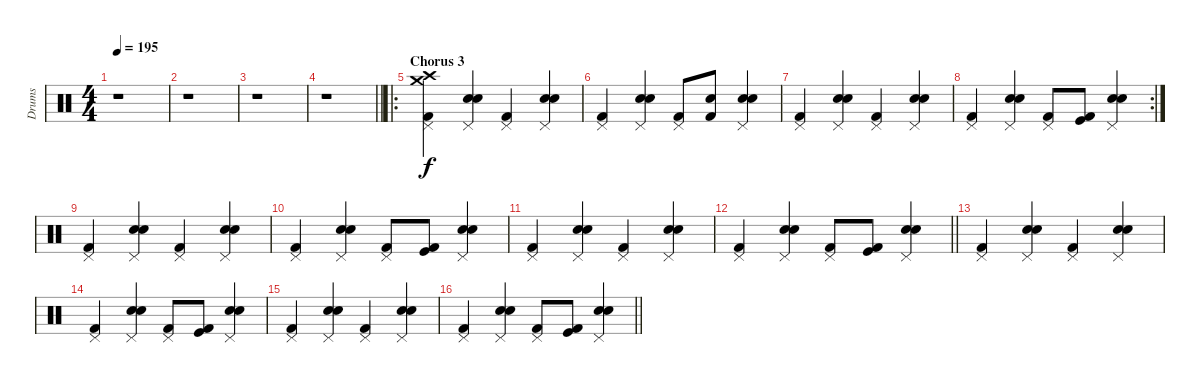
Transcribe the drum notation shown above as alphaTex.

\track ("Drums" "Drums") {instrument percussion}
\staff {score}
\articulation defaults
\ts (4 4)
\tempo 195
\clef neutral
\ks c
r.1{dy f} |
r.1 |
r.1 |
\barLineRight lightlight
r.1 |
\ro
\section ("" "Chorus 3")
("Kick (hit) 2" "Pedal Hi-Hat (hit)" "Crash medium (hit)" "Crash high (hit)").4 ("Snare (hit) 2" "Electric Snare (hit)" "Pedal Hi-Hat (hit)").4 ("Kick (hit) 2" "Pedal Hi-Hat (hit)").4 ("Snare (hit) 2" "Electric Snare (hit)" "Pedal Hi-Hat (hit)").4 |
("Kick (hit) 2" "Pedal Hi-Hat (hit)").4 ("Snare (hit) 2" "Electric Snare (hit)" "Pedal Hi-Hat (hit)").4 ("Kick (hit) 2" "Pedal Hi-Hat (hit)").8 ("Kick (hit) 2" "Electric Snare (hit)").8 ("Snare (hit) 2" "Electric Snare (hit)" "Pedal Hi-Hat (hit)").4 |
("Kick (hit) 2" "Pedal Hi-Hat (hit)").4 ("Snare (hit) 2" "Electric Snare (hit)" "Pedal Hi-Hat (hit)").4 ("Kick (hit) 2" "Pedal Hi-Hat (hit)").4 ("Snare (hit) 2" "Electric Snare (hit)" "Pedal Hi-Hat (hit)").4 |
\rc 2
("Kick (hit) 2" "Pedal Hi-Hat (hit)").4 ("Snare (hit) 2" "Electric Snare (hit)" "Pedal Hi-Hat (hit)").4 ("Kick (hit) 2" "Pedal Hi-Hat (hit)").8 ("Kick (hit) 2" "Kick (hit)").8 ("Snare (hit) 2" "Electric Snare (hit)" "Pedal Hi-Hat (hit)").4 |
("Kick (hit) 2" "Pedal Hi-Hat (hit)").4 ("Snare (hit) 2" "Electric Snare (hit)" "Pedal Hi-Hat (hit)").4 ("Kick (hit) 2" "Pedal Hi-Hat (hit)").4 ("Snare (hit) 2" "Electric Snare (hit)" "Pedal Hi-Hat (hit)").4 |
("Kick (hit) 2" "Pedal Hi-Hat (hit)").4 ("Snare (hit) 2" "Electric Snare (hit)" "Pedal Hi-Hat (hit)").4 ("Kick (hit) 2" "Pedal Hi-Hat (hit)").8 ("Kick (hit) 2" "Kick (hit)").8 ("Snare (hit) 2" "Electric Snare (hit)" "Pedal Hi-Hat (hit)").4 |
("Kick (hit) 2" "Pedal Hi-Hat (hit)").4 ("Snare (hit) 2" "Electric Snare (hit)" "Pedal Hi-Hat (hit)").4 ("Kick (hit) 2" "Pedal Hi-Hat (hit)").4 ("Snare (hit) 2" "Electric Snare (hit)" "Pedal Hi-Hat (hit)").4 |
\barLineRight lightlight
("Kick (hit) 2" "Pedal Hi-Hat (hit)").4 ("Snare (hit) 2" "Electric Snare (hit)" "Pedal Hi-Hat (hit)").4 ("Kick (hit) 2" "Pedal Hi-Hat (hit)").8 ("Kick (hit) 2" "Kick (hit)").8 ("Snare (hit) 2" "Electric Snare (hit)" "Pedal Hi-Hat (hit)").4 |
("Kick (hit) 2" "Pedal Hi-Hat (hit)").4 ("Snare (hit) 2" "Electric Snare (hit)" "Pedal Hi-Hat (hit)").4 ("Kick (hit) 2" "Pedal Hi-Hat (hit)").4 ("Snare (hit) 2" "Electric Snare (hit)" "Pedal Hi-Hat (hit)").4 |
("Kick (hit) 2" "Pedal Hi-Hat (hit)").4 ("Snare (hit) 2" "Electric Snare (hit)" "Pedal Hi-Hat (hit)").4 ("Kick (hit) 2" "Pedal Hi-Hat (hit)").8 ("Kick (hit) 2" "Kick (hit)").8 ("Snare (hit) 2" "Electric Snare (hit)" "Pedal Hi-Hat (hit)").4 |
("Kick (hit) 2" "Pedal Hi-Hat (hit)").4 ("Snare (hit) 2" "Electric Snare (hit)" "Pedal Hi-Hat (hit)").4 ("Kick (hit) 2" "Pedal Hi-Hat (hit)").4 ("Snare (hit) 2" "Electric Snare (hit)" "Pedal Hi-Hat (hit)").4 |
\barLineRight lightlight
("Kick (hit) 2" "Pedal Hi-Hat (hit)").4 ("Snare (hit) 2" "Electric Snare (hit)" "Pedal Hi-Hat (hit)").4 ("Kick (hit) 2" "Pedal Hi-Hat (hit)").8 ("Kick (hit) 2" "Kick (hit)").8 ("Snare (hit) 2" "Electric Snare (hit)" "Pedal Hi-Hat (hit)").4
